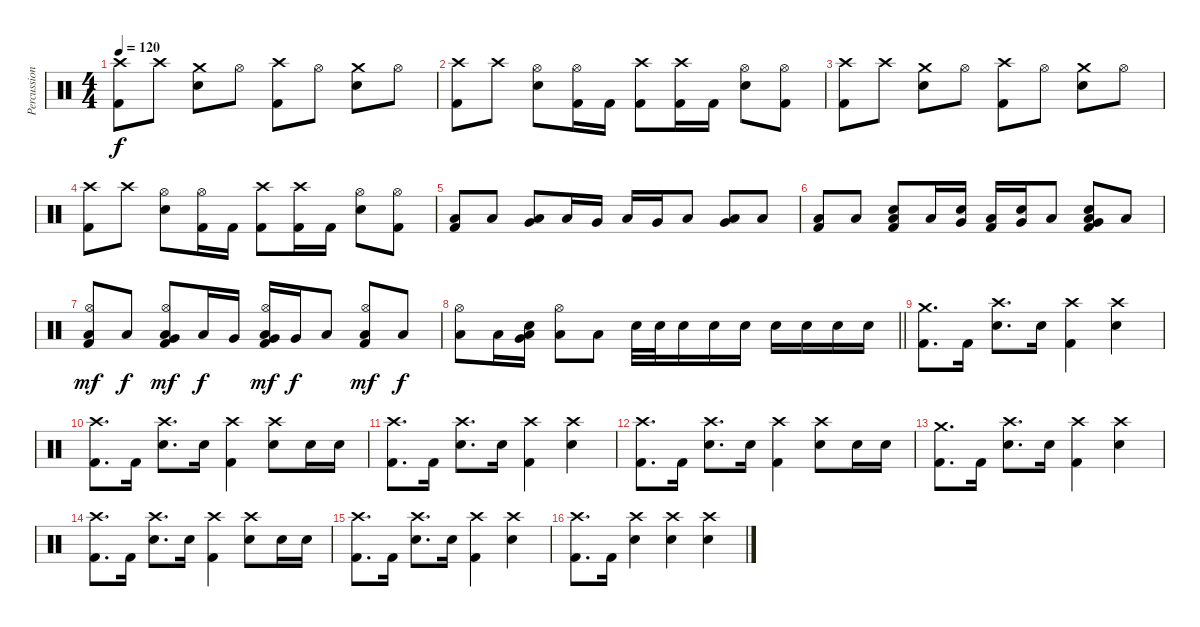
\track ("Percussion" "Percussion") {instrument percussion}
\staff {score}
\articulation defaults
\ts (4 4)
\tempo 120
\clef neutral
\ks c
("Crash high (hit)" "Kick (hit) 2").8{dy f} "Crash high (hit)".8 ("Crash medium (hit)" "Electric Snare (hit)").8 "Hi-Hat (open)".8 ("Crash high (hit)" "Kick (hit) 2").8 "Hi-Hat (open)".8 ("Crash medium (hit)" "Electric Snare (hit)").8 "Hi-Hat (open)".8 |
("Crash high (hit)" "Kick (hit) 2").8 "Crash high (hit)".8 ("Hi-Hat (open)" "Electric Snare (hit)").8 ("Hi-Hat (open)" "Kick (hit) 2").16 "Kick (hit) 2".16 ("Crash high (hit)" "Kick (hit) 2").8 ("Crash high (hit)" "Kick (hit) 2").16 "Kick (hit) 2".16 ("Hi-Hat (open)" "Electric Snare (hit)").8 ("Hi-Hat (open)" "Kick (hit) 2").8 |
("Crash high (hit)" "Kick (hit) 2").8 "Crash high (hit)".8 ("Crash medium (hit)" "Electric Snare (hit)").8 "Hi-Hat (open)".8 ("Crash high (hit)" "Kick (hit) 2").8 "Hi-Hat (open)".8 ("Crash medium (hit)" "Electric Snare (hit)").8 "Hi-Hat (open)".8 |
("Crash high (hit)" "Kick (hit) 2").8 "Crash high (hit)".8 ("Hi-Hat (open)" "Electric Snare (hit)").8 ("Hi-Hat (open)" "Kick (hit) 2").16 "Kick (hit) 2".16 ("Crash high (hit)" "Kick (hit) 2").8 ("Crash high (hit)" "Kick (hit) 2").16 "Kick (hit) 2".16 ("Hi-Hat (open)" "Electric Snare (hit)").8 ("Hi-Hat (open)" "Kick (hit) 2").8 |
("Low Floor Tom (hit)" "Kick (hit) 2").8 "Low Floor Tom (hit)".8 ("Very Low Tom (hit)" "Low Floor Tom (hit)").8 "Low Floor Tom (hit)".16 "Very Low Tom (hit)".16 "Low Floor Tom (hit)".16 "Very Low Tom (hit)".16 "Low Floor Tom (hit)".8 ("Very Low Tom (hit)" "Low Floor Tom (hit)").8 "Low Floor Tom (hit)".8 |
("Low Floor Tom (hit)" "Kick (hit) 2").8 "Low Floor Tom (hit)".8 ("Hand Clap (hit)" "Low Floor Tom (hit)" "Kick (hit) 2").8 "Low Floor Tom (hit)".16 ("Hand Clap (hit)" "Very Low Tom (hit)").16 ("Low Floor Tom (hit)" "Kick (hit) 2").16 ("Hand Clap (hit)" "Very Low Tom (hit)").16 "Low Floor Tom (hit)".8 ("Hand Clap (hit)" "Very Low Tom (hit)" "Low Floor Tom (hit)" "Kick (hit) 2").8 "Low Floor Tom (hit)".8 |
("Hi-Hat (open)" "Low Floor Tom (hit)" "Kick (hit) 2").8{dy mf} "Low Floor Tom (hit)".8{dy f} ("Hi-Hat (open)" "Very Low Tom (hit)" "Low Floor Tom (hit)" "Kick (hit) 2").8{dy mf} "Low Floor Tom (hit)".16{dy f} "Very Low Tom (hit)".16 ("Hi-Hat (open)" "Very Low Tom (hit)" "Low Floor Tom (hit)" "Kick (hit) 2").16{dy mf} "Very Low Tom (hit)".16{dy f} "Low Floor Tom (hit)".8 ("Hi-Hat (open)" "Low Floor Tom (hit)" "Kick (hit) 2").8{dy mf} "Low Floor Tom (hit)".8{dy f} |
\barLineRight lightlight
("Hi-Hat (open)" "Low Floor Tom (hit)").8 "Low Floor Tom (hit)".16 ("Hand Clap (hit)" "Very Low Tom (hit)" "Low Floor Tom (hit)").16 ("Hi-Hat (open)" "Low Floor Tom (hit)").8 "Low Floor Tom (hit)".8 "Electric Snare (hit)".32 "Electric Snare (hit)".32 "Electric Snare (hit)".16 "Electric Snare (hit)".16 "Electric Snare (hit)".16 "Electric Snare (hit)".16 "Electric Snare (hit)".16 "Electric Snare (hit)".16 "Electric Snare (hit)".16 |
("Crash medium (hit)" "Kick (hit) 2").8{d} "Kick (hit) 2".16 ("Crash high (hit)" "Electric Snare (hit)").8{d} "Electric Snare (hit)".16 ("Crash high (hit)" "Kick (hit) 2").4 ("Crash high (hit)" "Electric Snare (hit)").4 |
("Crash high (hit)" "Kick (hit) 2").8{d} "Kick (hit) 2".16 ("Crash high (hit)" "Electric Snare (hit)").8{d} "Electric Snare (hit)".16 ("Crash high (hit)" "Kick (hit) 2").4 ("Crash high (hit)" "Electric Snare (hit)").8 "Electric Snare (hit)".16 "Electric Snare (hit)".16 |
("Crash high (hit)" "Kick (hit) 2").8{d} "Kick (hit) 2".16 ("Crash high (hit)" "Electric Snare (hit)").8{d} "Electric Snare (hit)".16 ("Crash high (hit)" "Kick (hit) 2").4 ("Crash high (hit)" "Electric Snare (hit)").4 |
("Crash high (hit)" "Kick (hit) 2").8{d} "Kick (hit) 2".16 ("Crash high (hit)" "Electric Snare (hit)").8{d} "Electric Snare (hit)".16 ("Crash high (hit)" "Kick (hit) 2").4 ("Crash high (hit)" "Electric Snare (hit)").8 "Electric Snare (hit)".16 "Electric Snare (hit)".16 |
("Crash medium (hit)" "Kick (hit) 2").8{d} "Kick (hit) 2".16 ("Crash high (hit)" "Electric Snare (hit)").8{d} "Electric Snare (hit)".16 ("Crash high (hit)" "Kick (hit) 2").4 ("Crash high (hit)" "Electric Snare (hit)").4 |
("Crash high (hit)" "Kick (hit) 2").8{d} "Kick (hit) 2".16 ("Crash high (hit)" "Electric Snare (hit)").8{d} "Electric Snare (hit)".16 ("Crash high (hit)" "Kick (hit) 2").4 ("Crash high (hit)" "Electric Snare (hit)").8 "Electric Snare (hit)".16 "Electric Snare (hit)".16 |
("Crash high (hit)" "Kick (hit) 2").8{d} "Kick (hit) 2".16 ("Crash high (hit)" "Electric Snare (hit)").8{d} "Electric Snare (hit)".16 ("Crash high (hit)" "Kick (hit) 2").4 ("Crash high (hit)" "Electric Snare (hit)").4 |
("Crash high (hit)" "Kick (hit) 2").8{d} "Kick (hit) 2".16 ("Crash high (hit)" "Electric Snare (hit)").4 ("Crash high (hit)" "Electric Snare (hit)").4 ("Crash high (hit)" "Electric Snare (hit)").4
